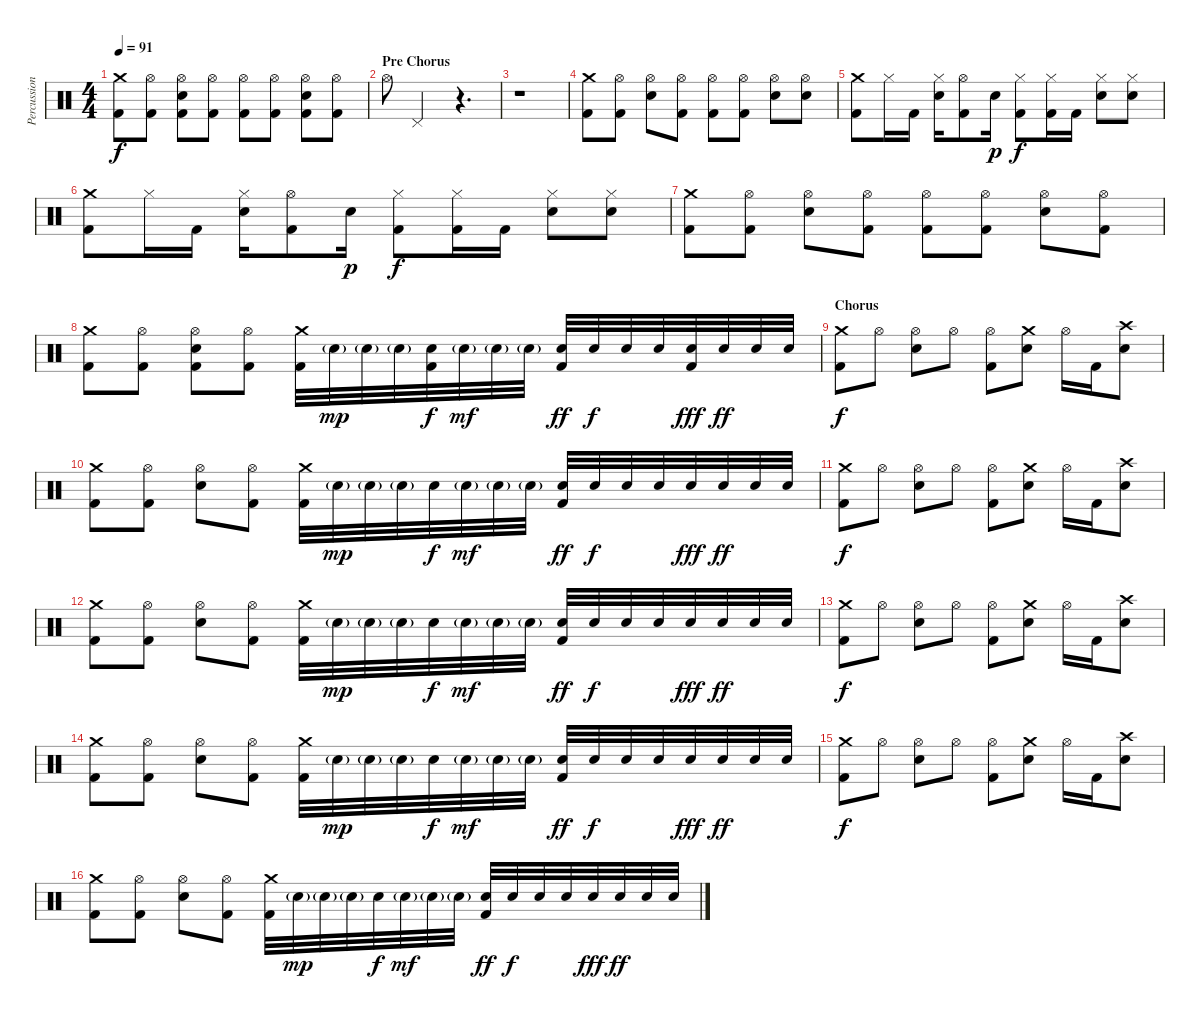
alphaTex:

\track ("Percussion" "Percussion") {instrument percussion}
\staff {score}
\articulation defaults
\ts (4 4)
\tempo 91
\clef neutral
\ks c
("Crash medium (hit)" "Kick (hit) 2").8{dy f} ("Hi-Hat (open)" "Kick (hit) 2").8 ("Hi-Hat (open)" "Electric Snare (hit)" "Kick (hit) 2").8 ("Hi-Hat (open)" "Kick (hit) 2").8 ("Hi-Hat (open)" "Kick (hit) 2").8 ("Hi-Hat (open)" "Kick (hit) 2").8 ("Hi-Hat (open)" "Electric Snare (hit)" "Kick (hit) 2").8 ("Hi-Hat (open)" "Kick (hit) 2").8 |
\section ("" "Pre Chorus")
"Hi-Hat (open)".8 "Pedal Hi-Hat (hit)".2 r.4{d} |
r.1 |
("Crash medium (hit)" "Kick (hit) 2").8 ("Hi-Hat (open)" "Kick (hit) 2").8 ("Hi-Hat (open)" "Electric Snare (hit)").8 ("Hi-Hat (open)" "Kick (hit) 2").8 ("Hi-Hat (open)" "Kick (hit) 2").8 ("Hi-Hat (open)" "Kick (hit) 2").8 ("Hi-Hat (open)" "Electric Snare (hit)").8 ("Hi-Hat (open)" "Electric Snare (hit)").8 |
("Crash medium (hit)" "Kick (hit) 2").8 "Hi-Hat (closed)".16 "Kick (hit) 2".16 ("Hi-Hat (closed)" "Electric Snare (hit)").16 ("Hi-Hat (open)" "Kick (hit) 2").8 "Electric Snare (hit)".16{dy p} ("Hi-Hat (closed)" "Kick (hit) 2").8{dy f} ("Hi-Hat (closed)" "Kick (hit) 2").16 "Kick (hit) 2".16 ("Hi-Hat (closed)" "Electric Snare (hit)").8 ("Hi-Hat (closed)" "Electric Snare (hit)").8 |
("Crash medium (hit)" "Kick (hit) 2").8 "Hi-Hat (closed)".16 "Kick (hit) 2".16 ("Hi-Hat (closed)" "Electric Snare (hit)").16 ("Hi-Hat (open)" "Kick (hit) 2").8 "Electric Snare (hit)".16{dy p} ("Hi-Hat (closed)" "Kick (hit) 2").8{dy f} ("Hi-Hat (closed)" "Kick (hit) 2").16 "Kick (hit) 2".16 ("Hi-Hat (closed)" "Electric Snare (hit)").8 ("Hi-Hat (closed)" "Electric Snare (hit)").8 |
("Crash medium (hit)" "Kick (hit) 2").8 ("Hi-Hat (open)" "Kick (hit) 2").8 ("Hi-Hat (open)" "Electric Snare (hit)").8 ("Hi-Hat (open)" "Kick (hit) 2").8 ("Hi-Hat (open)" "Kick (hit) 2").8 ("Hi-Hat (open)" "Kick (hit) 2").8 ("Hi-Hat (open)" "Electric Snare (hit)").8 ("Hi-Hat (open)" "Kick (hit) 2").8 |
("Crash medium (hit)" "Kick (hit) 2").8 ("Hi-Hat (open)" "Kick (hit) 2").8 ("Hi-Hat (open)" "Electric Snare (hit)" "Kick (hit) 2").8 ("Hi-Hat (open)" "Kick (hit) 2").8 ("Crash medium (hit)" "Kick (hit) 2").32 "Electric Snare (hit)"{g}.32{dy mp} "Electric Snare (hit)"{g}.32 "Electric Snare (hit)"{g}.32 ("Electric Snare (hit)" "Kick (hit) 2").32{dy f} "Electric Snare (hit)"{g}.32{dy mf} "Electric Snare (hit)"{g}.32 "Electric Snare (hit)"{g}.32 ("Electric Snare (hit)" "Kick (hit) 2").32{dy ff} "Electric Snare (hit)".32{dy f} "Electric Snare (hit)".32 "Electric Snare (hit)".32 ("Electric Snare (hit)" "Kick (hit) 2").32{dy fff} "Electric Snare (hit)".32{dy ff} "Electric Snare (hit)".32 "Electric Snare (hit)".32 |
\section ("" "Chorus")
("Crash medium (hit)" "Kick (hit) 2").8{dy f} "Hi-Hat (open)".8 ("Hi-Hat (open)" "Electric Snare (hit)").8 "Hi-Hat (open)".8 ("Hi-Hat (open)" "Kick (hit) 2").8 ("Crash medium (hit)" "Electric Snare (hit)").8 "Hi-Hat (open)".16 "Kick (hit) 2".16 ("Crash high (hit)" "Electric Snare (hit)").8 |
("Crash medium (hit)" "Kick (hit) 2").8 ("Hi-Hat (open)" "Kick (hit) 2").8 ("Hi-Hat (open)" "Electric Snare (hit)").8 ("Hi-Hat (open)" "Kick (hit) 2").8 ("Crash medium (hit)" "Kick (hit) 2").32 "Electric Snare (hit)"{g}.32{dy mp} "Electric Snare (hit)"{g}.32 "Electric Snare (hit)"{g}.32 "Electric Snare (hit)".32{dy f} "Electric Snare (hit)"{g}.32{dy mf} "Electric Snare (hit)"{g}.32 "Electric Snare (hit)"{g}.32 ("Electric Snare (hit)" "Kick (hit) 2").32{dy ff} "Electric Snare (hit)".32{dy f} "Electric Snare (hit)".32 "Electric Snare (hit)".32 "Electric Snare (hit)".32{dy fff} "Electric Snare (hit)".32{dy ff} "Electric Snare (hit)".32 "Electric Snare (hit)".32 |
("Crash medium (hit)" "Kick (hit) 2").8{dy f} "Hi-Hat (open)".8 ("Hi-Hat (open)" "Electric Snare (hit)").8 "Hi-Hat (open)".8 ("Hi-Hat (open)" "Kick (hit) 2").8 ("Crash medium (hit)" "Electric Snare (hit)").8 "Hi-Hat (open)".16 "Kick (hit) 2".16 ("Crash high (hit)" "Electric Snare (hit)").8 |
("Crash medium (hit)" "Kick (hit) 2").8 ("Hi-Hat (open)" "Kick (hit) 2").8 ("Hi-Hat (open)" "Electric Snare (hit)").8 ("Hi-Hat (open)" "Kick (hit) 2").8 ("Crash medium (hit)" "Kick (hit) 2").32 "Electric Snare (hit)"{g}.32{dy mp} "Electric Snare (hit)"{g}.32 "Electric Snare (hit)"{g}.32 "Electric Snare (hit)".32{dy f} "Electric Snare (hit)"{g}.32{dy mf} "Electric Snare (hit)"{g}.32 "Electric Snare (hit)"{g}.32 ("Electric Snare (hit)" "Kick (hit) 2").32{dy ff} "Electric Snare (hit)".32{dy f} "Electric Snare (hit)".32 "Electric Snare (hit)".32 "Electric Snare (hit)".32{dy fff} "Electric Snare (hit)".32{dy ff} "Electric Snare (hit)".32 "Electric Snare (hit)".32 |
("Crash medium (hit)" "Kick (hit) 2").8{dy f} "Hi-Hat (open)".8 ("Hi-Hat (open)" "Electric Snare (hit)").8 "Hi-Hat (open)".8 ("Hi-Hat (open)" "Kick (hit) 2").8 ("Crash medium (hit)" "Electric Snare (hit)").8 "Hi-Hat (open)".16 "Kick (hit) 2".16 ("Crash high (hit)" "Electric Snare (hit)").8 |
("Crash medium (hit)" "Kick (hit) 2").8 ("Hi-Hat (open)" "Kick (hit) 2").8 ("Hi-Hat (open)" "Electric Snare (hit)").8 ("Hi-Hat (open)" "Kick (hit) 2").8 ("Crash medium (hit)" "Kick (hit) 2").32 "Electric Snare (hit)"{g}.32{dy mp} "Electric Snare (hit)"{g}.32 "Electric Snare (hit)"{g}.32 "Electric Snare (hit)".32{dy f} "Electric Snare (hit)"{g}.32{dy mf} "Electric Snare (hit)"{g}.32 "Electric Snare (hit)"{g}.32 ("Electric Snare (hit)" "Kick (hit) 2").32{dy ff} "Electric Snare (hit)".32{dy f} "Electric Snare (hit)".32 "Electric Snare (hit)".32 "Electric Snare (hit)".32{dy fff} "Electric Snare (hit)".32{dy ff} "Electric Snare (hit)".32 "Electric Snare (hit)".32 |
("Crash medium (hit)" "Kick (hit) 2").8{dy f} "Hi-Hat (open)".8 ("Hi-Hat (open)" "Electric Snare (hit)").8 "Hi-Hat (open)".8 ("Hi-Hat (open)" "Kick (hit) 2").8 ("Crash medium (hit)" "Electric Snare (hit)").8 "Hi-Hat (open)".16 "Kick (hit) 2".16 ("Crash high (hit)" "Electric Snare (hit)").8 |
("Crash medium (hit)" "Kick (hit) 2").8 ("Hi-Hat (open)" "Kick (hit) 2").8 ("Hi-Hat (open)" "Electric Snare (hit)").8 ("Hi-Hat (open)" "Kick (hit) 2").8 ("Crash medium (hit)" "Kick (hit) 2").32 "Electric Snare (hit)"{g}.32{dy mp} "Electric Snare (hit)"{g}.32 "Electric Snare (hit)"{g}.32 "Electric Snare (hit)".32{dy f} "Electric Snare (hit)"{g}.32{dy mf} "Electric Snare (hit)"{g}.32 "Electric Snare (hit)"{g}.32 ("Electric Snare (hit)" "Kick (hit) 2").32{dy ff} "Electric Snare (hit)".32{dy f} "Electric Snare (hit)".32 "Electric Snare (hit)".32 "Electric Snare (hit)".32{dy fff} "Electric Snare (hit)".32{dy ff} "Electric Snare (hit)".32 "Electric Snare (hit)".32
